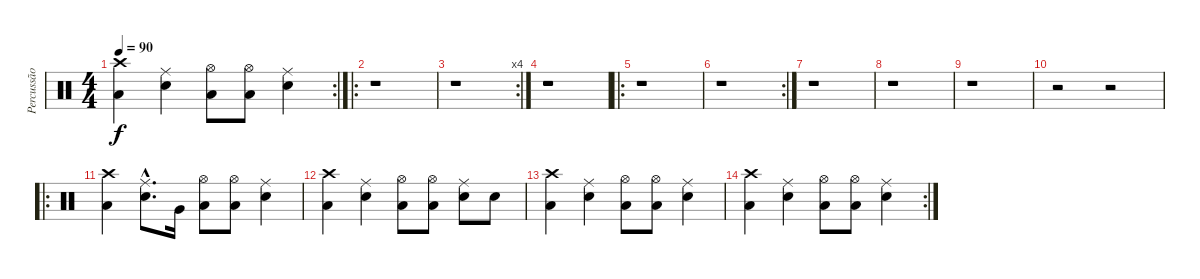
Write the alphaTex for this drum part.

\track ("Percussão" "Percussão") {instrument percussion}
\staff {score}
\articulation defaults
\rc 2
\ts (4 4)
\tempo 90
\clef neutral
\ks c
("Crash high (hit)" "Low Floor Tom (hit)").4{dy f} ("Ride (middle)" "Snare (hit) 2").4 ("Hi-Hat (open)" "Low Floor Tom (hit)").8 ("Hi-Hat (open)" "Low Floor Tom (hit)").8 ("Ride (middle)" "Snare (hit) 2").4 |
\ro
r.1 |
\rc 4
r.1 |
r.1 |
\ro
r.1 |
\rc 2
r.1 |
r.1 |
r.1 |
r.1 |
r.2 r.2 |
\ro
("Crash high (hit)" "Low Floor Tom (hit)").4 ("Ride (middle)"{hac} "Snare (hit) 2"{hac}).8{d} "Very Low Tom (hit)".16 ("Hi-Hat (open)" "Low Floor Tom (hit)").8 ("Hi-Hat (open)" "Low Floor Tom (hit)").8 ("Ride (middle)" "Snare (hit) 2").4 |
("Crash high (hit)" "Low Floor Tom (hit)").4 ("Ride (middle)" "Snare (hit) 2").4 ("Low Floor Tom (hit)" "Hi-Hat (open)").8 ("Hi-Hat (open)" "Low Floor Tom (hit)").8 ("Ride (middle)" "Snare (hit) 2").8 "Snare (hit) 2".8 |
("Crash high (hit)" "Low Floor Tom (hit)").4 ("Ride (middle)" "Snare (hit) 2").4 ("Hi-Hat (open)" "Low Floor Tom (hit)").8 ("Hi-Hat (open)" "Low Floor Tom (hit)").8 ("Ride (middle)" "Snare (hit) 2").4 |
\rc 2
("Crash high (hit)" "Low Floor Tom (hit)").4 ("Ride (middle)" "Snare (hit) 2").4 ("Hi-Hat (open)" "Low Floor Tom (hit)").8 ("Hi-Hat (open)" "Low Floor Tom (hit)").8 ("Ride (middle)" "Snare (hit) 2").4
